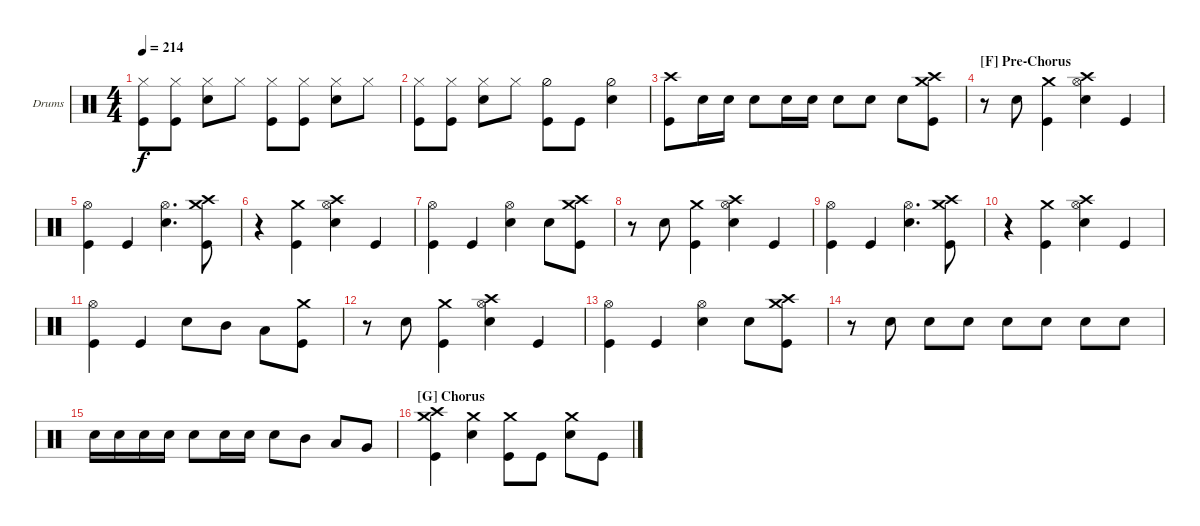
\defaultSystemsLayout 4
\bracketExtendMode groupsimilarinstruments
\firstSystemTrackNameOrientation horizontal
\otherSystemsTrackNameOrientation horizontal
\track ("Brandon" "Drums") {instrument percussion}
\staff {score}
\articulation defaults
\ts (4 4)
\tempo 214
\clef neutral
\ks c
("Hi-Hat (closed)" "Kick (hit)").8{dy f} ("Hi-Hat (closed)" "Kick (hit)").8 ("Hi-Hat (closed)" "Snare (hit) 2").8 "Hi-Hat (closed)".8 ("Hi-Hat (closed)" "Kick (hit)").8 ("Hi-Hat (closed)" "Kick (hit)").8 ("Hi-Hat (closed)" "Snare (hit) 2").8 "Hi-Hat (closed)".8 |
("Hi-Hat (closed)" "Kick (hit)").8 ("Hi-Hat (closed)" "Kick (hit)").8 ("Hi-Hat (closed)" "Snare (hit) 2").8 "Hi-Hat (closed)".8 ("Kick (hit)" "Hi-Hat (half)").8 "Kick (hit)".8 ("Snare (hit) 2" "Hi-Hat (half)").4 |
("Kick (hit)" "Crash high (hit)").8 "Snare (hit) 2".16 "Snare (hit) 2".16 "Snare (hit) 2".8 "Snare (hit) 2".16 "Snare (hit) 2".16 "Snare (hit) 2".8 "Snare (hit) 2".8 "Snare (hit) 2".8 ("Crash high (hit)" "Crash medium (hit)" "Kick (hit)").8 |
\section ("F" "Pre-Chorus")
\scale
0.244942 r.8 "Snare (hit) 2".8 ("Kick (hit)" "Crash medium (hit)").4 ("Snare (hit) 2" "Crash high (hit)" "Hi-Hat (open)").4 "Kick (hit)".4 |
\scale
0.235975 ("Kick (hit)" "Hi-Hat (open)").4 "Kick (hit)".4 ("Snare (hit) 2" "Hi-Hat (open)").4{d} ("Crash high (hit)" "Crash medium (hit)" "Kick (hit)").8 |
\scale
0.189802 r.4 ("Kick (hit)" "Crash medium (hit)").4 ("Snare (hit) 2" "Crash high (hit)" "Hi-Hat (open)").4 "Kick (hit)".4 |
("Kick (hit)" "Hi-Hat (open)").4 "Kick (hit)".4 ("Snare (hit) 2" "Hi-Hat (open)").4 "Snare (hit) 2".8 ("Crash high (hit)" "Crash medium (hit)" "Kick (hit)").8 |
r.8 "Snare (hit) 2".8 ("Kick (hit)" "Crash medium (hit)").4 ("Snare (hit) 2" "Crash high (hit)" "Hi-Hat (open)").4 "Kick (hit)".4 |
("Kick (hit)" "Hi-Hat (open)").4 "Kick (hit)".4 ("Snare (hit) 2" "Hi-Hat (open)").4{d} ("Crash high (hit)" "Crash medium (hit)" "Kick (hit)").8 |
r.4 ("Kick (hit)" "Crash medium (hit)").4 ("Snare (hit) 2" "Crash high (hit)" "Hi-Hat (open)").4 "Kick (hit)".4 |
("Kick (hit)" "Hi-Hat (open)").4 "Kick (hit)".4 "Snare (hit) 2".8 "Mid Tom (hit)".8 "Low Tom (hit)".8 ("Kick (hit)" "Crash medium (hit)").8 |
r.8 "Snare (hit) 2".8 ("Kick (hit)" "Crash medium (hit)").4 ("Snare (hit) 2" "Crash high (hit)" "Hi-Hat (open)").4 "Kick (hit)".4 |
("Kick (hit)" "Hi-Hat (open)").4 "Kick (hit)".4 ("Snare (hit) 2" "Hi-Hat (open)").4 "Snare (hit) 2".8 ("Crash high (hit)" "Crash medium (hit)" "Kick (hit)").8 |
r.8 "Snare (hit) 2".8 "Snare (hit) 2".8 "Snare (hit) 2".8 "Snare (hit) 2".8 "Snare (hit) 2".8 "Snare (hit) 2".8 "Snare (hit) 2".8 |
"Snare (hit) 2".16 "Snare (hit) 2".16 "Snare (hit) 2".16 "Snare (hit) 2".16 "Snare (hit) 2".8 "Snare (hit) 2".16 "Snare (hit) 2".16 "Snare (hit) 2".8 "Mid Tom (hit)".8 "Low Tom (hit)".8 "Very Low Tom (hit)".8 |
\section ("G" "Chorus")
("Kick (hit)" "Crash high (hit)" "Crash medium (hit)").4 ("Snare (hit) 2" "Crash medium (hit)").4 ("Kick (hit)" "Crash medium (hit)").8 "Kick (hit)".8 ("Snare (hit) 2" "Crash medium (hit)").8 "Kick (hit)".8
